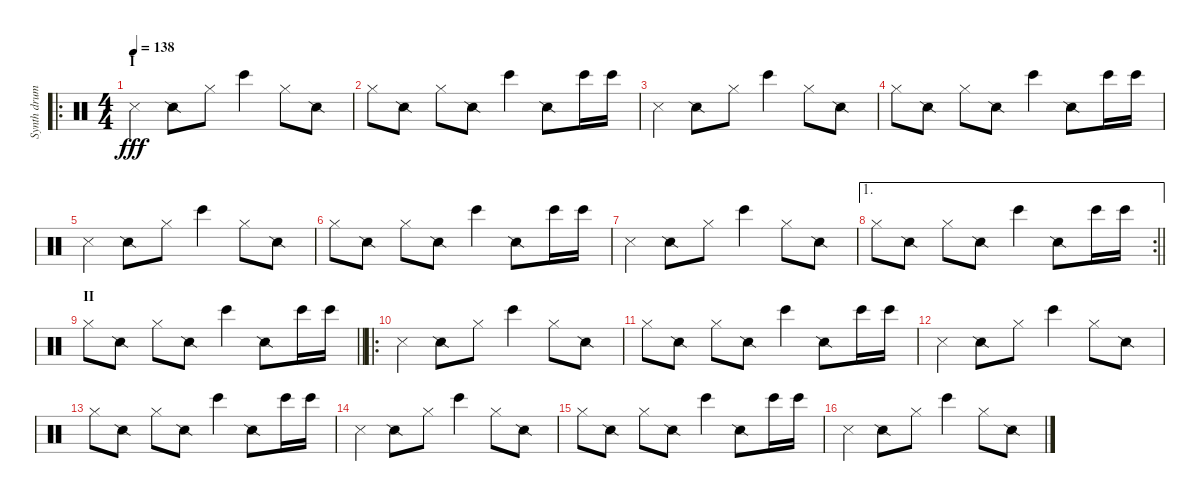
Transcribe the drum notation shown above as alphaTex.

\track ("Synth drums" "Synth drum") {instrument percussion}
\staff {score}
\articulation defaults
\ro
\ts (4 4)
\section ("" "I")
\tempo 138
\clef neutral
\ks c "Metronome (hit)".4{dy fff volume 10} "Snare (side stick) 2".8 "Hi-Hat (closed)".8 "Bongo High (hit)".4 "Hi-Hat (closed)".8 "Snare (side stick) 2".8
|
"Hi-Hat (closed)".8 "Snare (side stick) 2".8 "Hi-Hat (closed)".8 "Snare (side stick) 2".8 "Bongo High (hit)".4 "Snare (side stick) 2".8 "Bongo High (hit)".16 "Bongo High (hit)".16 |
"Metronome (hit)".4 "Snare (side stick) 2".8 "Hi-Hat (closed)".8 "Bongo High (hit)".4 "Hi-Hat (closed)".8 "Snare (side stick) 2".8 |
"Hi-Hat (closed)".8 "Snare (side stick) 2".8 "Hi-Hat (closed)".8 "Snare (side stick) 2".8 "Bongo High (hit)".4 "Snare (side stick) 2".8 "Bongo High (hit)".16 "Bongo High (hit)".16 |
"Metronome (hit)".4 "Snare (side stick) 2".8 "Hi-Hat (closed)".8 "Bongo High (hit)".4 "Hi-Hat (closed)".8 "Snare (side stick) 2".8 |
"Hi-Hat (closed)".8 "Snare (side stick) 2".8 "Hi-Hat (closed)".8 "Snare (side stick) 2".8 "Bongo High (hit)".4 "Snare (side stick) 2".8 "Bongo High (hit)".16 "Bongo High (hit)".16 |
"Metronome (hit)".4 "Snare (side stick) 2".8 "Hi-Hat (closed)".8 "Bongo High (hit)".4 "Hi-Hat (closed)".8 "Snare (side stick) 2".8 |
\ae 1
\rc 2
\barLineRight lightlight "Hi-Hat (closed)".8 "Snare (side stick) 2".8 "Hi-Hat (closed)".8 "Snare (side stick) 2".8 "Bongo High (hit)".4 "Snare (side stick) 2".8 "Bongo High (hit)".16 "Bongo High (hit)".16
|
\section ("" "II")
\barLineRight lightlight "Hi-Hat (closed)".8 "Snare (side stick) 2".8 "Hi-Hat (closed)".8 "Snare (side stick) 2".8 "Bongo High (hit)".4 "Snare (side stick) 2".8 "Bongo High (hit)".16 "Bongo High (hit)".16
|
\ro "Metronome (hit)".4 "Snare (side stick) 2".8 "Hi-Hat (closed)".8 "Bongo High (hit)".4 "Hi-Hat (closed)".8 "Snare (side stick) 2".8
|
"Hi-Hat (closed)".8 "Snare (side stick) 2".8 "Hi-Hat (closed)".8 "Snare (side stick) 2".8 "Bongo High (hit)".4 "Snare (side stick) 2".8 "Bongo High (hit)".16 "Bongo High (hit)".16 |
"Metronome (hit)".4 "Snare (side stick) 2".8 "Hi-Hat (closed)".8 "Bongo High (hit)".4 "Hi-Hat (closed)".8 "Snare (side stick) 2".8 |
"Hi-Hat (closed)".8 "Snare (side stick) 2".8 "Hi-Hat (closed)".8 "Snare (side stick) 2".8 "Bongo High (hit)".4 "Snare (side stick) 2".8 "Bongo High (hit)".16 "Bongo High (hit)".16 |
"Metronome (hit)".4 "Snare (side stick) 2".8 "Hi-Hat (closed)".8 "Bongo High (hit)".4 "Hi-Hat (closed)".8 "Snare (side stick) 2".8 |
"Hi-Hat (closed)".8 "Snare (side stick) 2".8 "Hi-Hat (closed)".8 "Snare (side stick) 2".8 "Bongo High (hit)".4 "Snare (side stick) 2".8 "Bongo High (hit)".16 "Bongo High (hit)".16 |
"Metronome (hit)".4 "Snare (side stick) 2".8 "Hi-Hat (closed)".8 "Bongo High (hit)".4 "Hi-Hat (closed)".8 "Snare (side stick) 2".8
